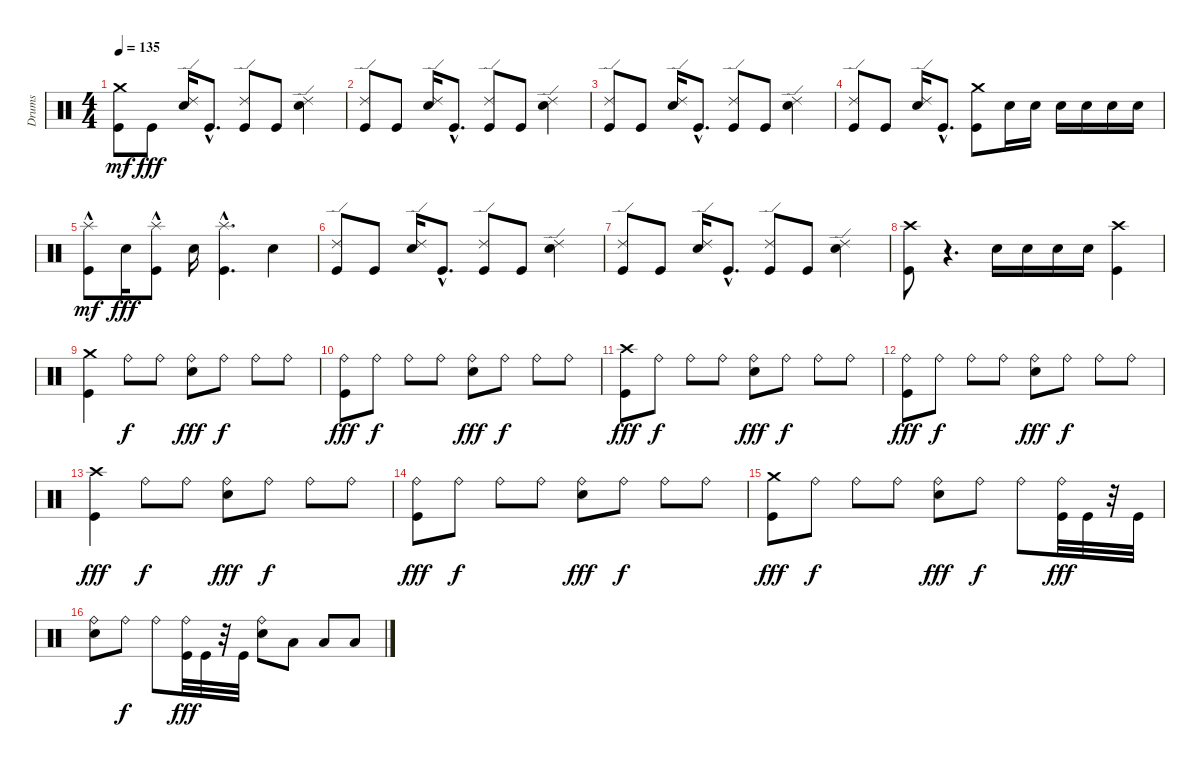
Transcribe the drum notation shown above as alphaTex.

\track ("Drums" "Drums") {instrument percussion}
\staff {score}
\articulation defaults
\ts (4 4)
\tempo 135
\clef neutral
\ks c
("Kick (hit)" "Crash medium (hit)").8{dy mf} "Kick (hit)".8{dy fff} ("Electric Snare (hit)" "Ride (edge) 2").16 "Kick (hit)"{hac}.8{d} ("Kick (hit)" "Ride (edge) 2").8 "Kick (hit)".8 ("Electric Snare (hit)" "Ride (edge) 2").4 |
("Kick (hit)" "Ride (edge) 2").8 "Kick (hit)".8 ("Electric Snare (hit)" "Ride (edge) 2").16 "Kick (hit)"{hac}.8{d} ("Ride (edge) 2" "Kick (hit)").8 "Kick (hit)".8 ("Ride (edge) 2" "Electric Snare (hit)").4 |
("Kick (hit)" "Ride (edge) 2").8 "Kick (hit)".8 ("Electric Snare (hit)" "Ride (edge) 2").16 "Kick (hit)"{hac}.8{d} ("Ride (edge) 2" "Kick (hit)").8 "Kick (hit)".8 ("Ride (edge) 2" "Electric Snare (hit)").4 |
("Ride (edge) 2" "Kick (hit)").8 "Kick (hit)".8 ("Electric Snare (hit)" "Ride (edge) 2").16 "Kick (hit)"{hac}.8{d} ("Crash medium (hit)" "Kick (hit)").8 "Electric Snare (hit)".16 "Electric Snare (hit)".16 "Electric Snare (hit)".16 "Electric Snare (hit)".16 "Electric Snare (hit)".16 "Electric Snare (hit)".16 |
("Kick (hit)"{hac} "Splash (hit)").8{dy mf} "Electric Snare (hit)".16{dy fff} ("Splash (hit)" "Kick (hit)"{hac}).8 "Electric Snare (hit)".16 ("Splash (hit)"{hac} "Kick (hit)").4{d} "Electric Snare (hit)".4 |
("Kick (hit)" "Ride (edge) 2").8 "Kick (hit)".8 ("Electric Snare (hit)" "Ride (edge) 2").16 "Kick (hit)"{hac}.8{d} ("Ride (edge) 2" "Kick (hit)").8 "Kick (hit)".8 ("Ride (edge) 2" "Electric Snare (hit)").4 |
("Kick (hit)" "Ride (edge) 2").8 "Kick (hit)".8 ("Electric Snare (hit)" "Ride (edge) 2").16 "Kick (hit)"{hac}.8{d} ("Ride (edge) 2" "Kick (hit)").8 "Kick (hit)".8 ("Ride (edge) 2" "Electric Snare (hit)").4 |
("Kick (hit)" "Crash high (hit)").8 r.4{d} "Electric Snare (hit)".16 "Electric Snare (hit)".16 "Electric Snare (hit)".16 "Electric Snare (hit)".16 ("Kick (hit)" "Crash high (hit)").4 |
("Kick (hit)" "Crash medium (hit)").4 "Ride (bell)".8{dy f} "Ride (bell)".8 ("Electric Snare (hit)" "Ride (bell)").8{dy fff} "Ride (bell)".8{dy f} "Ride (bell)".8 "Ride (bell)".8 |
("Kick (hit)" "Ride (bell)").8{dy fff} "Ride (bell)".8{dy f} "Ride (bell)".8 "Ride (bell)".8 ("Electric Snare (hit)" "Ride (bell)").8{dy fff} "Ride (bell)".8{dy f} "Ride (bell)".8 "Ride (bell)".8 |
("Kick (hit)" "Crash high (hit)").8{dy fff} "Ride (bell)".8{dy f} "Ride (bell)".8 "Ride (bell)".8 ("Electric Snare (hit)" "Ride (bell)").8{dy fff} "Ride (bell)".8{dy f} "Ride (bell)".8 "Ride (bell)".8 |
("Kick (hit)" "Ride (bell)").8{dy fff} "Ride (bell)".8{dy f} "Ride (bell)".8 "Ride (bell)".8 ("Electric Snare (hit)" "Ride (bell)").8{dy fff} "Ride (bell)".8{dy f} "Ride (bell)".8 "Ride (bell)".8 |
("Kick (hit)" "Crash high (hit)").4{dy fff} "Ride (bell)".8{dy f} "Ride (bell)".8 ("Electric Snare (hit)" "Ride (bell)").8{dy fff} "Ride (bell)".8{dy f} "Ride (bell)".8 "Ride (bell)".8 |
("Kick (hit)" "Ride (bell)").8{dy fff} "Ride (bell)".8{dy f} "Ride (bell)".8 "Ride (bell)".8 ("Electric Snare (hit)" "Ride (bell)").8{dy fff} "Ride (bell)".8{dy f} "Ride (bell)".8 "Ride (bell)".8 |
("Kick (hit)" "Crash medium (hit)").8{dy fff} "Ride (bell)".8{dy f} "Ride (bell)".8 "Ride (bell)".8 ("Electric Snare (hit)" "Ride (bell)").8{dy fff} "Ride (bell)".8{dy f} "Ride (bell)".8 ("Kick (hit)" "Ride (bell)").32{dy fff} "Kick (hit)".32 r.32 "Kick (hit)".32 |
("Ride (bell)" "Electric Snare (hit)").8 "Ride (bell)".8{dy f} "Ride (bell)".8 ("Kick (hit)" "Ride (bell)").32{dy fff} "Kick (hit)".32 r.32 "Kick (hit)".32 ("Electric Snare (hit)" "Ride (bell)").8 "Low Floor Tom (hit)".8 "Low Floor Tom (hit)".8 "Low Floor Tom (hit)".8
